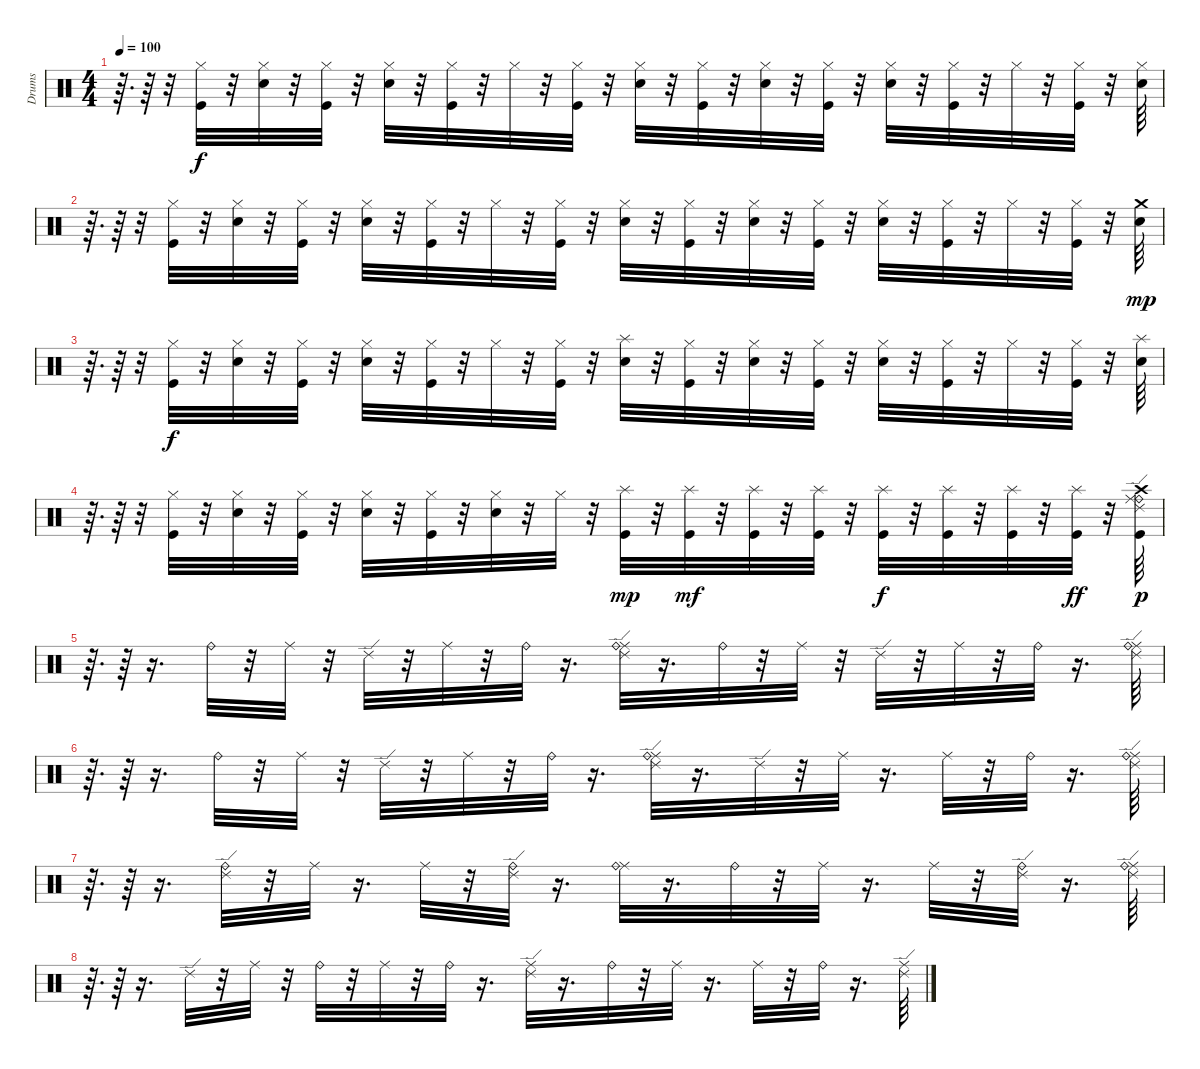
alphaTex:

\track ("Drums" "Drums") {instrument percussion}
\staff {score}
\articulation defaults
\ts (4 4)
\tempo 100
\clef neutral
\ks c
r.64{d dy f} r.64 r.32 ("Kick (hit)" "Hi-Hat (closed)").32 r.32 ("Snare (hit) 2" "Hi-Hat (closed)").32 r.32 ("Kick (hit)" "Hi-Hat (closed)").32 r.32 ("Snare (hit) 2" "Hi-Hat (closed)").32 r.32 ("Kick (hit)" "Hi-Hat (closed)").32 r.32 "Hi-Hat (closed)".32 r.32 ("Kick (hit)" "Hi-Hat (closed)").32 r.32 ("Snare (hit) 2" "Hi-Hat (closed)").32 r.32 ("Kick (hit)" "Hi-Hat (closed)").32 r.32 ("Snare (hit) 2" "Hi-Hat (closed)").32 r.32 ("Kick (hit)" "Hi-Hat (closed)").32 r.32 ("Snare (hit) 2" "Hi-Hat (closed)").32 r.32 ("Kick (hit)" "Hi-Hat (closed)").32 r.32 "Hi-Hat (closed)".32 r.32 ("Kick (hit)" "Hi-Hat (closed)").32 r.32 ("Snare (hit) 2" "Hi-Hat (closed)").64 |
r.64{d} r.64 r.32 ("Kick (hit)" "Hi-Hat (closed)").32 r.32 ("Snare (hit) 2" "Hi-Hat (closed)").32 r.32 ("Kick (hit)" "Hi-Hat (closed)").32 r.32 ("Snare (hit) 2" "Hi-Hat (closed)").32 r.32 ("Kick (hit)" "Hi-Hat (closed)").32 r.32 "Hi-Hat (closed)".32 r.32 ("Kick (hit)" "Hi-Hat (closed)").32 r.32 ("Snare (hit) 2" "Hi-Hat (closed)").32 r.32 ("Kick (hit)" "Hi-Hat (closed)").32 r.32 ("Snare (hit) 2" "Hi-Hat (closed)").32 r.32 ("Kick (hit)" "Hi-Hat (closed)").32 r.32 ("Snare (hit) 2" "Hi-Hat (closed)").32 r.32 ("Kick (hit)" "Hi-Hat (closed)").32 r.32 "Hi-Hat (closed)".32 r.32 ("Kick (hit)" "Hi-Hat (closed)").32 r.32 ("Snare (hit) 2" "Crash medium (hit)").64{dy mp} |
r.64{d} r.64 r.32 ("Kick (hit)" "Hi-Hat (closed)").32{dy f} r.32 ("Snare (hit) 2" "Hi-Hat (closed)").32 r.32 ("Kick (hit)" "Hi-Hat (closed)").32 r.32 ("Snare (hit) 2" "Hi-Hat (closed)").32 r.32 ("Kick (hit)" "Hi-Hat (closed)").32 r.32 "Hi-Hat (closed)".32 r.32 ("Kick (hit)" "Hi-Hat (closed)").32 r.32 ("Snare (hit) 2" "Splash (hit)").32 r.32 ("Kick (hit)" "Hi-Hat (closed)").32 r.32 ("Snare (hit) 2" "Hi-Hat (closed)").32 r.32 ("Kick (hit)" "Hi-Hat (closed)").32 r.32 ("Snare (hit) 2" "Hi-Hat (closed)").32 r.32 ("Kick (hit)" "Hi-Hat (closed)").32 r.32 "Hi-Hat (closed)".32 r.32 ("Kick (hit)" "Hi-Hat (closed)").32 r.32 ("Snare (hit) 2" "Splash (hit)").64 |
r.64{d} r.64 r.32 ("Kick (hit)" "Hi-Hat (closed)").32 r.32 ("Snare (hit) 2" "Hi-Hat (closed)").32 r.32 ("Kick (hit)" "Hi-Hat (closed)").32 r.32 ("Snare (hit) 2" "Hi-Hat (closed)").32 r.32 ("Kick (hit)" "Hi-Hat (closed)").32 r.32 ("Snare (hit) 2" "Hi-Hat (closed)").32 r.32 "Hi-Hat (closed)".32 r.32 ("Kick (hit)" "Splash (hit)").32{dy mp} r.32 ("Kick (hit)" "Splash (hit)").32{dy mf} r.32 ("Kick (hit)" "Splash (hit)").32 r.32 ("Kick (hit)" "Splash (hit)").32 r.32 ("Kick (hit)" "Splash (hit)").32{dy f} r.32 ("Kick (hit)" "Splash (hit)").32 r.32 ("Kick (hit)" "Splash (hit)").32 r.32 ("Kick (hit)" "Splash (hit)").32{dy ff} r.32 ("Kick (hit)" "Crash high (hit)" "Ride (edge) 2" "Ride (bell)" "Ride (middle)").64{dy p} |
r.64{d} r.64 r.16{d} "Ride (bell)".32 r.32 "Ride (middle)".32 r.32 "Ride (edge) 2".32 r.32 "Ride (middle)".32 r.32 "Ride (bell)".32 r.16{d} ("Ride (middle)" "Ride (edge) 2" "Ride (bell)").32 r.16{d} "Ride (bell)".32 r.32 "Ride (middle)".32 r.32 "Ride (edge) 2".32 r.32 "Ride (middle)".32 r.32 "Ride (bell)".32 r.16{d} ("Ride (middle)" "Ride (edge) 2" "Ride (bell)").64 |
r.64{d} r.64 r.16{d} "Ride (bell)".32 r.32 "Ride (middle)".32 r.32 "Ride (edge) 2".32 r.32 "Ride (middle)".32 r.32 "Ride (bell)".32 r.16{d} ("Ride (middle)" "Ride (edge) 2" "Ride (bell)").32 r.16{d} "Ride (edge) 2".32 r.32 "Ride (middle)".32 r.16{d} "Ride (middle)".32 r.32 "Ride (bell)".32 r.16{d} ("Ride (middle)" "Ride (edge) 2" "Ride (bell)").64 |
r.64{d} r.64 r.16{d} ("Ride (edge) 2" "Ride (bell)").32 r.32 "Ride (middle)".32 r.16{d} "Ride (middle)".32 r.32 ("Ride (edge) 2" "Ride (bell)").32 r.16{d} ("Ride (middle)" "Ride (bell)").32 r.16{d} "Ride (bell)".32 r.32 "Ride (middle)".32 r.16{d} "Ride (middle)".32 r.32 ("Ride (bell)" "Ride (edge) 2").32 r.16{d} ("Ride (middle)" "Ride (edge) 2" "Ride (bell)").64 |
r.64{d} r.64 r.16{d} "Ride (edge) 2".32 r.32 "Ride (middle)".32 r.32 "Ride (bell)".32 r.32 "Ride (middle)".32 r.32 "Ride (bell)".32 r.16{d} ("Ride (middle)" "Ride (edge) 2").32 r.16{d} "Ride (bell)".32 r.32 "Ride (middle)".32 r.16{d} "Ride (middle)".32 r.32 "Ride (bell)".32 r.16{d} ("Ride (middle)" "Ride (edge) 2").64
